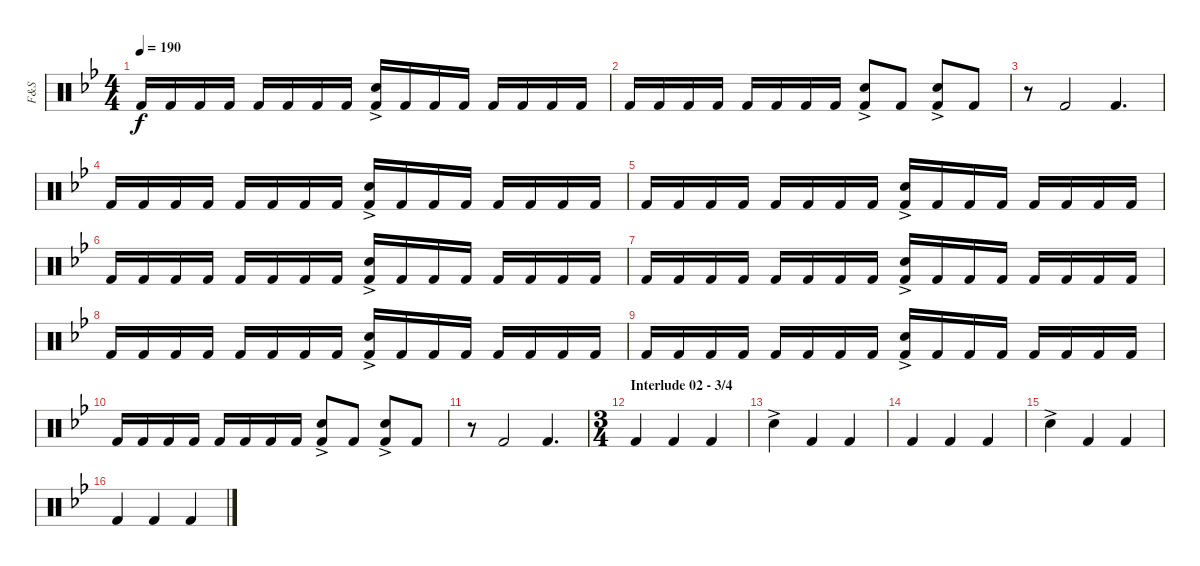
\track ("F&S" "F&S") {instrument percussion}
\staff {score}
\articulation defaults
\ts (4 4)
\tempo 190
\clef neutral
\ks bb "Kick (hit) 2".16{dy f} "Kick (hit) 2".16 "Kick (hit) 2".16 "Kick (hit) 2".16 "Kick (hit) 2".16 "Kick (hit) 2".16 "Kick (hit) 2".16 "Kick (hit) 2".16
("Kick (hit) 2" "Snare (hit) 2"{ac}).16 "Kick (hit) 2".16 "Kick (hit) 2".16 "Kick (hit) 2".16 "Kick (hit) 2".16 "Kick (hit) 2".16 "Kick (hit) 2".16 "Kick (hit) 2".16 |
"Kick (hit) 2".16 "Kick (hit) 2".16 "Kick (hit) 2".16 "Kick (hit) 2".16 "Kick (hit) 2".16 "Kick (hit) 2".16 "Kick (hit) 2".16 "Kick (hit) 2".16 ("Kick (hit) 2" "Snare (hit) 2"{ac}).8 "Kick (hit) 2".8 ("Kick (hit) 2" "Snare (hit) 2"{ac}).8 "Kick (hit) 2".8 |
r.8 "Kick (hit) 2".2 "Kick (hit) 2".4{d} |
"Kick (hit) 2".16 "Kick (hit) 2".16 "Kick (hit) 2".16 "Kick (hit) 2".16 "Kick (hit) 2".16 "Kick (hit) 2".16 "Kick (hit) 2".16 "Kick (hit) 2".16 ("Kick (hit) 2" "Snare (hit) 2"{ac}).16 "Kick (hit) 2".16 "Kick (hit) 2".16 "Kick (hit) 2".16 "Kick (hit) 2".16 "Kick (hit) 2".16 "Kick (hit) 2".16 "Kick (hit) 2".16 |
"Kick (hit) 2".16 "Kick (hit) 2".16 "Kick (hit) 2".16 "Kick (hit) 2".16 "Kick (hit) 2".16 "Kick (hit) 2".16 "Kick (hit) 2".16 "Kick (hit) 2".16 ("Kick (hit) 2" "Snare (hit) 2"{ac}).16 "Kick (hit) 2".16 "Kick (hit) 2".16 "Kick (hit) 2".16 "Kick (hit) 2".16 "Kick (hit) 2".16 "Kick (hit) 2".16 "Kick (hit) 2".16 |
"Kick (hit) 2".16 "Kick (hit) 2".16 "Kick (hit) 2".16 "Kick (hit) 2".16 "Kick (hit) 2".16 "Kick (hit) 2".16 "Kick (hit) 2".16 "Kick (hit) 2".16 ("Kick (hit) 2" "Snare (hit) 2"{ac}).16 "Kick (hit) 2".16 "Kick (hit) 2".16 "Kick (hit) 2".16 "Kick (hit) 2".16 "Kick (hit) 2".16 "Kick (hit) 2".16 "Kick (hit) 2".16 |
"Kick (hit) 2".16 "Kick (hit) 2".16 "Kick (hit) 2".16 "Kick (hit) 2".16 "Kick (hit) 2".16 "Kick (hit) 2".16 "Kick (hit) 2".16 "Kick (hit) 2".16 ("Kick (hit) 2" "Snare (hit) 2"{ac}).16 "Kick (hit) 2".16 "Kick (hit) 2".16 "Kick (hit) 2".16 "Kick (hit) 2".16 "Kick (hit) 2".16 "Kick (hit) 2".16 "Kick (hit) 2".16 |
"Kick (hit) 2".16 "Kick (hit) 2".16 "Kick (hit) 2".16 "Kick (hit) 2".16 "Kick (hit) 2".16 "Kick (hit) 2".16 "Kick (hit) 2".16 "Kick (hit) 2".16 ("Kick (hit) 2" "Snare (hit) 2"{ac}).16 "Kick (hit) 2".16 "Kick (hit) 2".16 "Kick (hit) 2".16 "Kick (hit) 2".16 "Kick (hit) 2".16 "Kick (hit) 2".16 "Kick (hit) 2".16 |
"Kick (hit) 2".16 "Kick (hit) 2".16 "Kick (hit) 2".16 "Kick (hit) 2".16 "Kick (hit) 2".16 "Kick (hit) 2".16 "Kick (hit) 2".16 "Kick (hit) 2".16 ("Kick (hit) 2" "Snare (hit) 2"{ac}).16 "Kick (hit) 2".16 "Kick (hit) 2".16 "Kick (hit) 2".16 "Kick (hit) 2".16 "Kick (hit) 2".16 "Kick (hit) 2".16 "Kick (hit) 2".16 |
"Kick (hit) 2".16 "Kick (hit) 2".16 "Kick (hit) 2".16 "Kick (hit) 2".16 "Kick (hit) 2".16 "Kick (hit) 2".16 "Kick (hit) 2".16 "Kick (hit) 2".16 ("Kick (hit) 2" "Snare (hit) 2"{ac}).8 "Kick (hit) 2".8 ("Kick (hit) 2" "Snare (hit) 2"{ac}).8 "Kick (hit) 2".8 |
r.8 "Kick (hit) 2".2 "Kick (hit) 2".4{d} |
\ts (3 4)
\section ("" "Interlude 02 - 3/4")
"Kick (hit) 2".4 "Kick (hit) 2".4 "Kick (hit) 2".4 |
"Snare (hit) 2"{ac}.4 "Kick (hit) 2".4 "Kick (hit) 2".4 |
"Kick (hit) 2".4 "Kick (hit) 2".4 "Kick (hit) 2".4 |
"Snare (hit) 2"{ac}.4 "Kick (hit) 2".4 "Kick (hit) 2".4 |
"Kick (hit) 2".4 "Kick (hit) 2".4 "Kick (hit) 2".4
